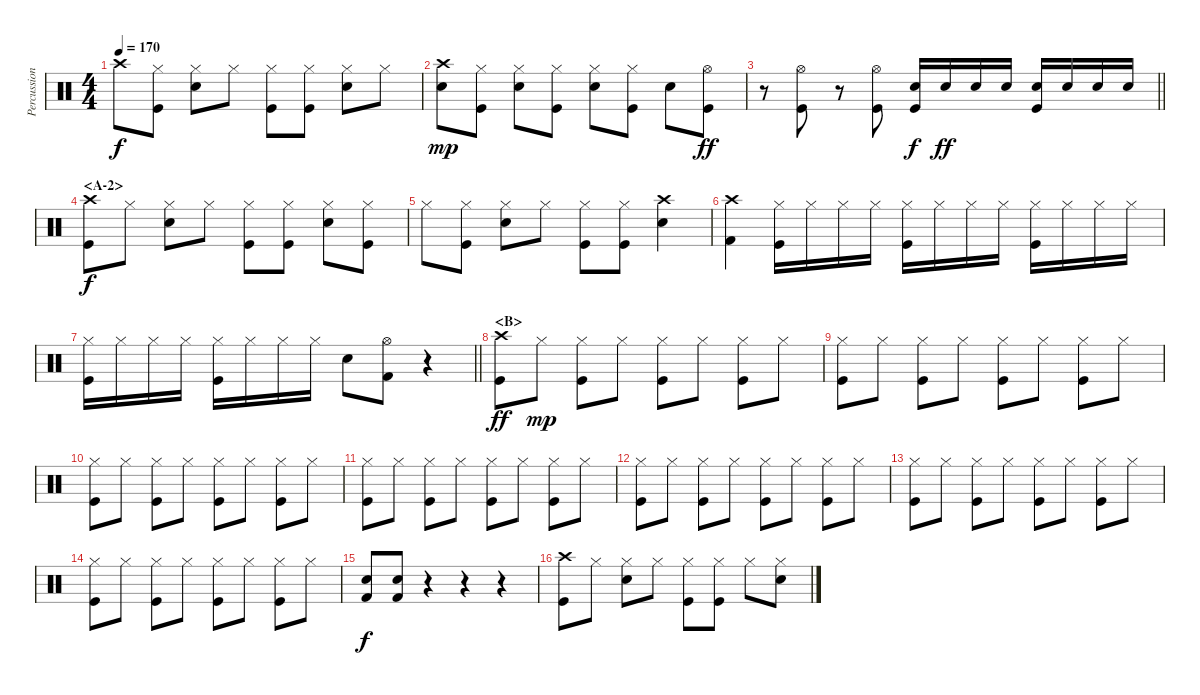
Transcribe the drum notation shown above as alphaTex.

\track ("Percussion" "Percussion") {instrument percussion}
\staff {score}
\articulation defaults
\ts (4 4)
\tempo 170
\clef neutral
\ks c "Crash high (hit)"{t}.8{dy f}
("Hi-Hat (closed)" "Kick (hit)").8 ("Hi-Hat (closed)" "Snare (hit) 2").8 "Hi-Hat (closed)".8 ("Hi-Hat (closed)" "Kick (hit)").8 ("Hi-Hat (closed)" "Kick (hit)").8 ("Hi-Hat (closed)" "Snare (hit) 2").8 "Hi-Hat (closed)".8 |
("Crash high (hit)" "Snare (hit) 2").8{dy mp} ("Hi-Hat (closed)" "Kick (hit)").8 ("Hi-Hat (closed)" "Snare (hit) 2").8 ("Hi-Hat (closed)" "Kick (hit)").8 ("Hi-Hat (closed)" "Snare (hit) 2").8 ("Hi-Hat (closed)" "Kick (hit)").8 "Snare (hit) 2".8 ("Hi-Hat (open)" "Kick (hit)").8{dy ff} |
\barLineRight lightlight
r.8 ("Hi-Hat (open)" "Kick (hit)").8 r.8 ("Hi-Hat (open)" "Kick (hit)").8 ("Kick (hit)" "Snare (hit) 2").16{dy f} "Snare (hit) 2".16{dy ff} "Snare (hit) 2".16 "Snare (hit) 2".16 ("Snare (hit) 2" "Kick (hit)").16 "Snare (hit) 2".16 "Snare (hit) 2".16 "Snare (hit) 2".16 |
\section ("" "<A-2>")
("Crash high (hit)" "Kick (hit)").8{dy f} "Hi-Hat (closed)".8 ("Hi-Hat (closed)" "Snare (hit) 2").8 "Hi-Hat (closed)".8 ("Hi-Hat (closed)" "Kick (hit)").8 ("Hi-Hat (closed)" "Kick (hit)").8 ("Hi-Hat (closed)" "Snare (hit) 2").8 ("Hi-Hat (closed)" "Kick (hit)").8 |
"Hi-Hat (closed)".8 ("Hi-Hat (closed)" "Kick (hit)").8 ("Hi-Hat (closed)" "Snare (hit) 2").8 "Hi-Hat (closed)".8 ("Hi-Hat (closed)" "Kick (hit)").8 ("Hi-Hat (closed)" "Kick (hit)").8 ("Crash high (hit)" "Snare (hit) 2").4 |
("Crash high (hit)" "Kick (hit) 2").4 ("Kick (hit)" "Hi-Hat (closed)").16 "Hi-Hat (closed)".16 "Hi-Hat (closed)".16 "Hi-Hat (closed)".16 ("Kick (hit)" "Hi-Hat (closed)").16 "Hi-Hat (closed)".16 "Hi-Hat (closed)".16 "Hi-Hat (closed)".16 ("Kick (hit)" "Hi-Hat (closed)").16 "Hi-Hat (closed)".16 "Hi-Hat (closed)".16 "Hi-Hat (closed)".16 |
\barLineRight lightlight
("Kick (hit)" "Hi-Hat (closed)").16 "Hi-Hat (closed)".16 "Hi-Hat (closed)".16 "Hi-Hat (closed)".16 ("Kick (hit)" "Hi-Hat (closed)").16 "Hi-Hat (closed)".16 "Hi-Hat (closed)".16 "Hi-Hat (closed)".16 "Snare (hit) 2".8 ("Hi-Hat (open)" "Kick (hit) 2").8 r.4 |
\section ("" "<B>")
("Kick (hit)" "Crash high (hit)").8{dy ff} "Hi-Hat (closed)".8{dy mp} ("Kick (hit)" "Hi-Hat (closed)").8 "Hi-Hat (closed)".8 ("Kick (hit)" "Hi-Hat (closed)").8 "Hi-Hat (closed)".8 ("Kick (hit)" "Hi-Hat (closed)").8 "Hi-Hat (closed)".8 |
("Kick (hit)" "Hi-Hat (closed)").8 "Hi-Hat (closed)".8 ("Kick (hit)" "Hi-Hat (closed)").8 "Hi-Hat (closed)".8 ("Kick (hit)" "Hi-Hat (closed)").8 "Hi-Hat (closed)".8 ("Kick (hit)" "Hi-Hat (closed)").8 "Hi-Hat (closed)".8 |
("Kick (hit)" "Hi-Hat (closed)").8 "Hi-Hat (closed)".8 ("Kick (hit)" "Hi-Hat (closed)").8 "Hi-Hat (closed)".8 ("Kick (hit)" "Hi-Hat (closed)").8 "Hi-Hat (closed)".8 ("Kick (hit)" "Hi-Hat (closed)").8 "Hi-Hat (closed)".8 |
("Kick (hit)" "Hi-Hat (closed)").8 "Hi-Hat (closed)".8 ("Kick (hit)" "Hi-Hat (closed)").8 "Hi-Hat (closed)".8 ("Kick (hit)" "Hi-Hat (closed)").8 "Hi-Hat (closed)".8 ("Kick (hit)" "Hi-Hat (closed)").8 "Hi-Hat (closed)".8 |
("Kick (hit)" "Hi-Hat (closed)").8 "Hi-Hat (closed)".8 ("Kick (hit)" "Hi-Hat (closed)").8 "Hi-Hat (closed)".8 ("Kick (hit)" "Hi-Hat (closed)").8 "Hi-Hat (closed)".8 ("Kick (hit)" "Hi-Hat (closed)").8 "Hi-Hat (closed)".8 |
("Kick (hit)" "Hi-Hat (closed)").8 "Hi-Hat (closed)".8 ("Kick (hit)" "Hi-Hat (closed)").8 "Hi-Hat (closed)".8 ("Kick (hit)" "Hi-Hat (closed)").8 "Hi-Hat (closed)".8 ("Kick (hit)" "Hi-Hat (closed)").8 "Hi-Hat (closed)".8 |
("Kick (hit)" "Hi-Hat (closed)").8 "Hi-Hat (closed)".8 ("Kick (hit)" "Hi-Hat (closed)").8 "Hi-Hat (closed)".8 ("Kick (hit)" "Hi-Hat (closed)").8 "Hi-Hat (closed)".8 ("Kick (hit)" "Hi-Hat (closed)").8 "Hi-Hat (closed)".8 |
("Snare (hit) 2" "Kick (hit) 2").8{dy f} ("Snare (hit) 2" "Kick (hit) 2").8 r.4 r.4 r.4 |
("Crash high (hit)" "Kick (hit)").8 "Hi-Hat (closed)".8 ("Hi-Hat (closed)" "Snare (hit) 2").8 "Hi-Hat (closed)".8 ("Hi-Hat (closed)" "Kick (hit)").8 ("Hi-Hat (closed)" "Kick (hit)").8 "Hi-Hat (closed)".8 ("Hi-Hat (closed)" "Snare (hit) 2").8
